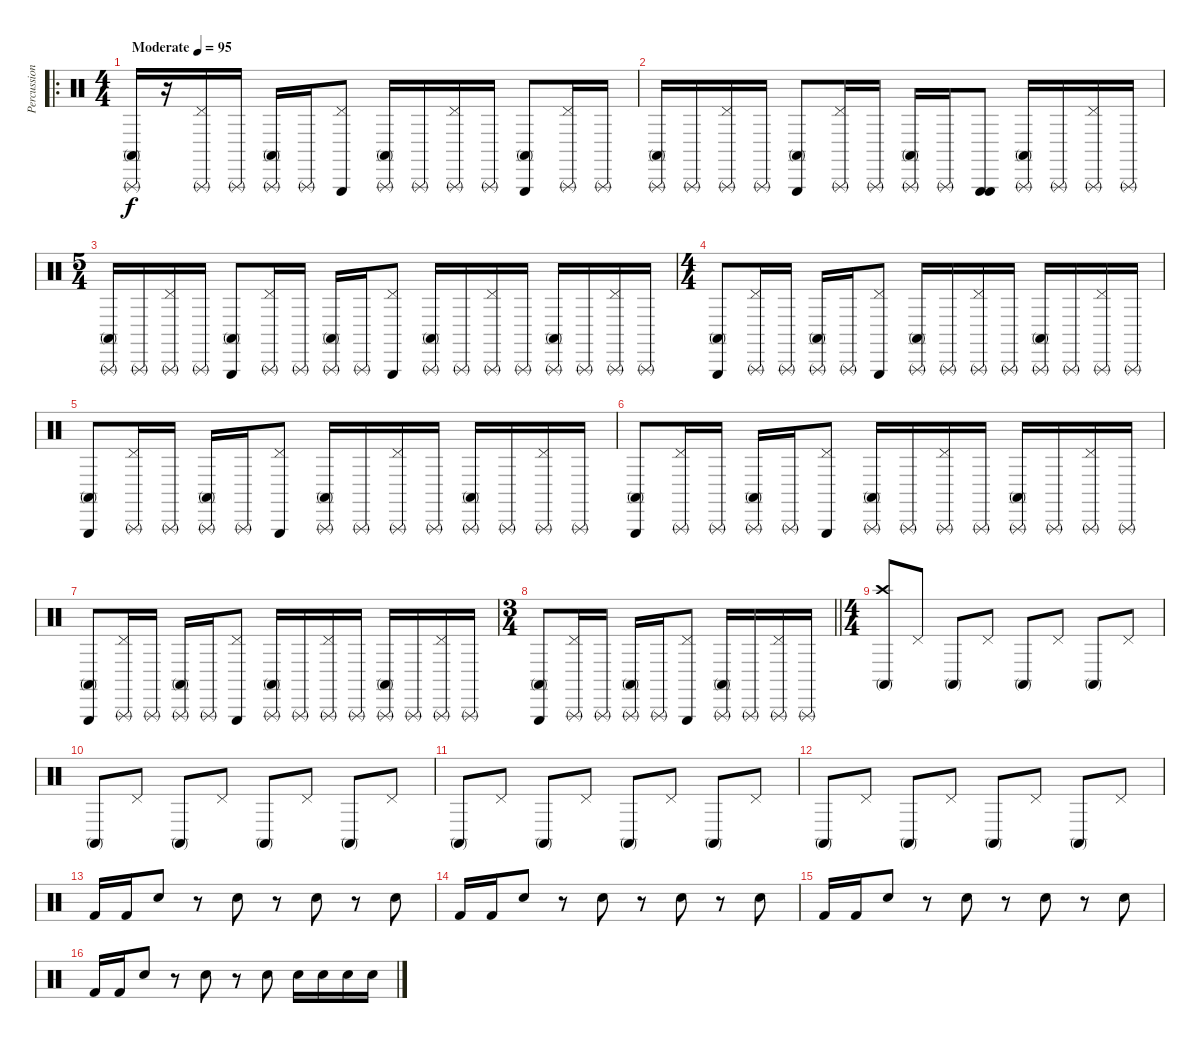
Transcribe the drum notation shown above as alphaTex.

\track ("Percussion" "Percussion") {instrument percussion}
\staff {score}
\articulation defaults
\ro
\ts (4 4)
\tempo (95 "Moderate")
\clef neutral
\ks c
("Triangle (rnute)" "Conga high (mute)").16{dy f} r.16 ("Triangle (rnute)" "Pedal Hi-Hat (hit)").16 "Triangle (rnute)".16 ("Triangle (rnute)" "Conga high (mute)").16 "Triangle (rnute)".16 ("Triangle (hit)" "Pedal Hi-Hat (hit)").8 ("Triangle (rnute)" "Conga high (mute)").16 "Triangle (rnute)".16 ("Triangle (rnute)" "Pedal Hi-Hat (hit)").16 "Triangle (rnute)".16 ("Triangle (hit)" "Conga high (mute)").8 ("Triangle (rnute)" "Pedal Hi-Hat (hit)").16 "Triangle (rnute)".16 |
("Triangle (rnute)" "Conga high (mute)").16 "Triangle (rnute)".16 ("Triangle (rnute)" "Pedal Hi-Hat (hit)").16 "Triangle (rnute)".16 ("Triangle (hit)" "Conga high (mute)").8 ("Triangle (rnute)" "Pedal Hi-Hat (hit)").16 "Triangle (rnute)".16 ("Triangle (rnute)" "Conga high (mute)").16 "Triangle (rnute)".16 ("Triangle (hit)" "Triangle (hit)").8 ("Triangle (rnute)" "Conga high (mute)").16 "Triangle (rnute)".16 ("Triangle (rnute)" "Pedal Hi-Hat (hit)").16 "Triangle (rnute)".16 |
\ts (5 4)
("Triangle (rnute)" "Conga high (mute)").16 "Triangle (rnute)".16 ("Triangle (rnute)" "Pedal Hi-Hat (hit)").16 "Triangle (rnute)".16 ("Triangle (hit)" "Conga high (mute)").8 ("Triangle (rnute)" "Pedal Hi-Hat (hit)").16 "Triangle (rnute)".16 ("Triangle (rnute)" "Conga high (mute)").16 "Triangle (rnute)".16 ("Triangle (hit)" "Pedal Hi-Hat (hit)").8 ("Triangle (rnute)" "Conga high (mute)").16 "Triangle (rnute)".16 ("Triangle (rnute)" "Pedal Hi-Hat (hit)").16 "Triangle (rnute)".16 ("Triangle (rnute)" "Conga high (mute)").16 "Triangle (rnute)".16 ("Triangle (rnute)" "Pedal Hi-Hat (hit)").16 "Triangle (rnute)".16 |
\ts (4 4)
("Triangle (hit)" "Conga high (mute)").8 ("Triangle (rnute)" "Pedal Hi-Hat (hit)").16 "Triangle (rnute)".16 ("Triangle (rnute)" "Conga high (mute)").16 "Triangle (rnute)".16 ("Triangle (hit)" "Pedal Hi-Hat (hit)").8 ("Triangle (rnute)" "Conga high (mute)").16 "Triangle (rnute)".16 ("Triangle (rnute)" "Pedal Hi-Hat (hit)").16 "Triangle (rnute)".16 ("Triangle (rnute)" "Conga high (mute)").16 "Triangle (rnute)".16 ("Triangle (rnute)" "Pedal Hi-Hat (hit)").16 "Triangle (rnute)".16 |
("Triangle (hit)" "Conga high (mute)").8 ("Triangle (rnute)" "Pedal Hi-Hat (hit)").16 "Triangle (rnute)".16 ("Triangle (rnute)" "Conga high (mute)").16 "Triangle (rnute)".16 ("Triangle (hit)" "Pedal Hi-Hat (hit)").8 ("Triangle (rnute)" "Conga high (mute)").16 "Triangle (rnute)".16 ("Triangle (rnute)" "Pedal Hi-Hat (hit)").16 "Triangle (rnute)".16 ("Triangle (rnute)" "Conga high (mute)").16 "Triangle (rnute)".16 ("Triangle (rnute)" "Pedal Hi-Hat (hit)").16 "Triangle (rnute)".16 |
("Triangle (hit)" "Conga high (mute)").8 ("Triangle (rnute)" "Pedal Hi-Hat (hit)").16 "Triangle (rnute)".16 ("Triangle (rnute)" "Conga high (mute)").16 "Triangle (rnute)".16 ("Triangle (hit)" "Pedal Hi-Hat (hit)").8 ("Triangle (rnute)" "Conga high (mute)").16 "Triangle (rnute)".16 ("Triangle (rnute)" "Pedal Hi-Hat (hit)").16 "Triangle (rnute)".16 ("Triangle (rnute)" "Conga high (mute)").16 "Triangle (rnute)".16 ("Triangle (rnute)" "Pedal Hi-Hat (hit)").16 "Triangle (rnute)".16 |
("Triangle (hit)" "Conga high (mute)").8 ("Triangle (rnute)" "Pedal Hi-Hat (hit)").16 "Triangle (rnute)".16 ("Triangle (rnute)" "Conga high (mute)").16 "Triangle (rnute)".16 ("Triangle (hit)" "Pedal Hi-Hat (hit)").8 ("Triangle (rnute)" "Conga high (mute)").16 "Triangle (rnute)".16 ("Triangle (rnute)" "Pedal Hi-Hat (hit)").16 "Triangle (rnute)".16 ("Triangle (rnute)" "Conga high (mute)").16 "Triangle (rnute)".16 ("Triangle (rnute)" "Pedal Hi-Hat (hit)").16 "Triangle (rnute)".16 |
\ts (3 4)
\barLineRight lightlight
("Triangle (hit)" "Conga high (mute)").8 ("Triangle (rnute)" "Pedal Hi-Hat (hit)").16 "Triangle (rnute)".16 ("Triangle (rnute)" "Conga high (mute)").16 "Triangle (rnute)".16 ("Triangle (hit)" "Pedal Hi-Hat (hit)").8 ("Triangle (rnute)" "Conga high (mute)").16 "Triangle (rnute)".16 ("Triangle (rnute)" "Pedal Hi-Hat (hit)").16 "Triangle (rnute)".16 |
\ts (4 4)
("Conga high (mute)" "Crash high (hit)").8 "Pedal Hi-Hat (hit)".8 "Conga high (mute)".8 "Pedal Hi-Hat (hit)".8 "Conga high (mute)".8 "Pedal Hi-Hat (hit)".8 "Conga high (mute)".8 "Pedal Hi-Hat (hit)".8 |
"Conga high (mute)".8 "Pedal Hi-Hat (hit)".8 "Conga high (mute)".8 "Pedal Hi-Hat (hit)".8 "Conga high (mute)".8 "Pedal Hi-Hat (hit)".8 "Conga high (mute)".8 "Pedal Hi-Hat (hit)".8 |
"Conga high (mute)".8 "Pedal Hi-Hat (hit)".8 "Conga high (mute)".8 "Pedal Hi-Hat (hit)".8 "Conga high (mute)".8 "Pedal Hi-Hat (hit)".8 "Conga high (mute)".8 "Pedal Hi-Hat (hit)".8 |
"Conga high (mute)".8 "Pedal Hi-Hat (hit)".8 "Conga high (mute)".8 "Pedal Hi-Hat (hit)".8 "Conga high (mute)".8 "Pedal Hi-Hat (hit)".8 "Conga high (mute)".8 "Pedal Hi-Hat (hit)".8 |
"Kick (hit) 2".16 "Kick (hit) 2".16 "Electric Snare (hit)".8 r.8 "Electric Snare (hit)".8 r.8 "Electric Snare (hit)".8 r.8 "Electric Snare (hit)".8 |
"Kick (hit) 2".16 "Kick (hit) 2".16 "Electric Snare (hit)".8 r.8 "Electric Snare (hit)".8 r.8 "Electric Snare (hit)".8 r.8 "Electric Snare (hit)".8 |
"Kick (hit) 2".16 "Kick (hit) 2".16 "Electric Snare (hit)".8 r.8 "Electric Snare (hit)".8 r.8 "Electric Snare (hit)".8 r.8 "Electric Snare (hit)".8 |
"Kick (hit) 2".16 "Kick (hit) 2".16 "Electric Snare (hit)".8 r.8 "Electric Snare (hit)".8 r.8 "Electric Snare (hit)".8 "Electric Snare (hit)".16 "Electric Snare (hit)".16 "Electric Snare (hit)".16 "Electric Snare (hit)".16
